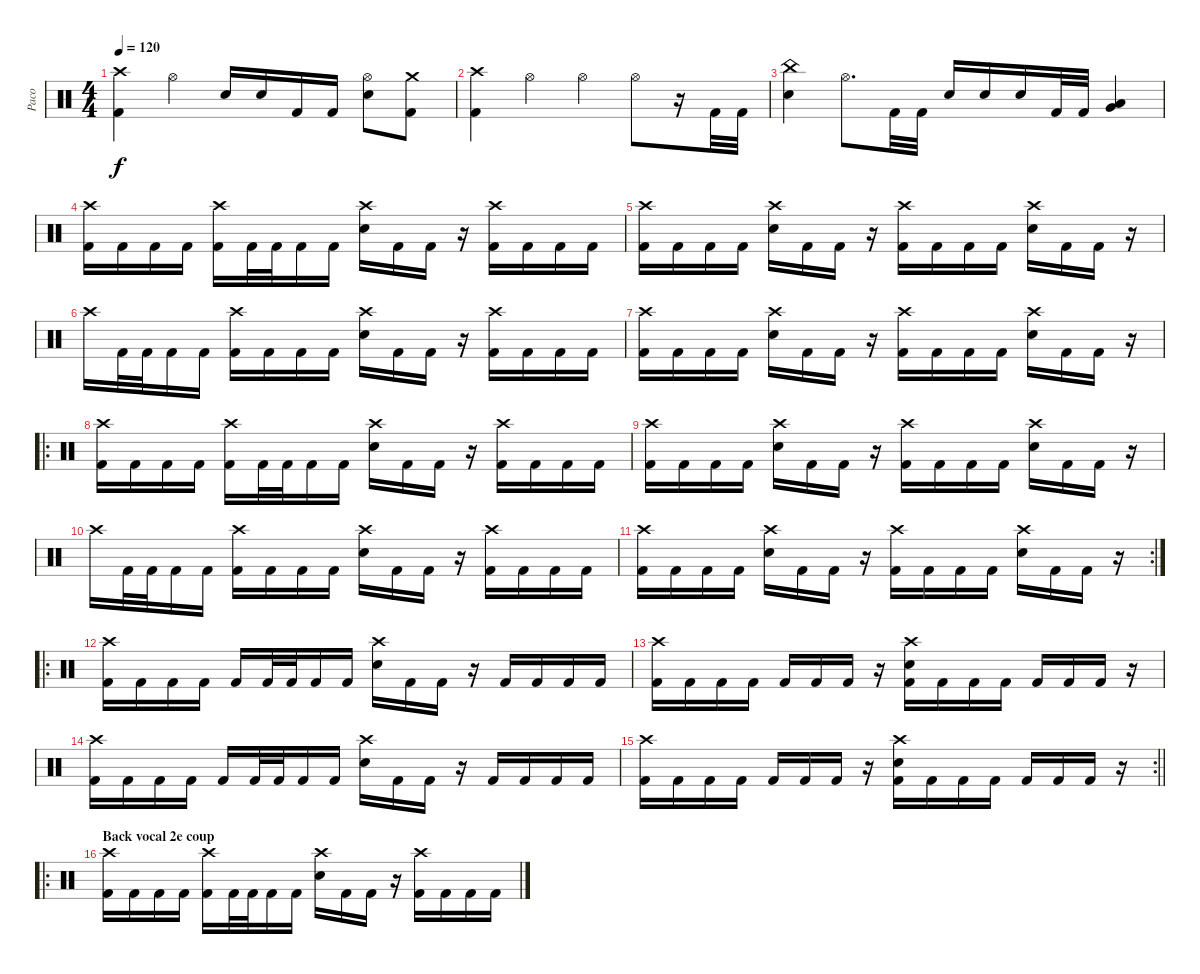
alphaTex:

\track ("Paco" "Paco") {instrument percussion}
\staff {score}
\articulation defaults
\ts (4 4)
\tempo 120
\clef neutral
\ks c
("Crash high (hit)" "Kick (hit) 2").4{dy f} "Hi-Hat (open)".4 "Electric Snare (hit)".16 "Electric Snare (hit)".16 "Kick (hit) 2".16 "Kick (hit) 2".16 ("Hi-Hat (open)" "Electric Snare (hit)").8 ("Crash medium (hit)" "Kick (hit) 2").8 |
("Crash high (hit)" "Kick (hit) 2").4 "Hi-Hat (open)".4 "Hi-Hat (open)".4 "Hi-Hat (open)".8 r.16 "Kick (hit) 2".32 "Kick (hit) 2".32 |
("China (hit)" "Electric Snare (hit)").4 "Hi-Hat (open)".8{d} "Kick (hit) 2".32 "Kick (hit) 2".32 "Electric Snare (hit)".16 "Electric Snare (hit)".16 "Electric Snare (hit)".16 "Kick (hit) 2".32 "Kick (hit) 2".32 ("Very Low Tom (hit)" "Low Floor Tom (hit)").4 |
("Crash high (hit)" "Kick (hit) 2").16 "Kick (hit) 2".16 "Kick (hit) 2".16 "Kick (hit) 2".16 ("Crash high (hit)" "Kick (hit) 2").16 "Kick (hit) 2".32 "Kick (hit) 2".32 "Kick (hit) 2".16 "Kick (hit) 2".16 ("Crash high (hit)" "Electric Snare (hit)").16 "Kick (hit) 2".16 "Kick (hit) 2".16 r.16 ("Crash high (hit)" "Kick (hit) 2").16 "Kick (hit) 2".16 "Kick (hit) 2".16 "Kick (hit) 2".16 |
("Crash high (hit)" "Kick (hit) 2").16 "Kick (hit) 2".16 "Kick (hit) 2".16 "Kick (hit) 2".16 ("Crash high (hit)" "Electric Snare (hit)").16 "Kick (hit) 2".16 "Kick (hit) 2".16 r.16 ("Crash high (hit)" "Kick (hit) 2").16 "Kick (hit) 2".16 "Kick (hit) 2".16 "Kick (hit) 2".16 ("Crash high (hit)" "Electric Snare (hit)").16 "Kick (hit) 2".16 "Kick (hit) 2".16 r.16 |
"Crash high (hit)".16 "Kick (hit) 2".32 "Kick (hit) 2".32 "Kick (hit) 2".16 "Kick (hit) 2".16 ("Crash high (hit)" "Kick (hit) 2").16 "Kick (hit) 2".16 "Kick (hit) 2".16 "Kick (hit) 2".16 ("Crash high (hit)" "Electric Snare (hit)").16 "Kick (hit) 2".16 "Kick (hit) 2".16 r.16 ("Crash high (hit)" "Kick (hit) 2").16 "Kick (hit) 2".16 "Kick (hit) 2".16 "Kick (hit) 2".16 |
("Crash high (hit)" "Kick (hit) 2").16 "Kick (hit) 2".16 "Kick (hit) 2".16 "Kick (hit) 2".16 ("Crash high (hit)" "Electric Snare (hit)").16 "Kick (hit) 2".16 "Kick (hit) 2".16 r.16 ("Crash high (hit)" "Kick (hit) 2").16 "Kick (hit) 2".16 "Kick (hit) 2".16 "Kick (hit) 2".16 ("Crash high (hit)" "Electric Snare (hit)").16 "Kick (hit) 2".16 "Kick (hit) 2".16 r.16 |
\ro
("Crash high (hit)" "Kick (hit) 2").16 "Kick (hit) 2".16 "Kick (hit) 2".16 "Kick (hit) 2".16 ("Crash high (hit)" "Kick (hit) 2").16 "Kick (hit) 2".32 "Kick (hit) 2".32 "Kick (hit) 2".16 "Kick (hit) 2".16 ("Crash high (hit)" "Electric Snare (hit)").16 "Kick (hit) 2".16 "Kick (hit) 2".16 r.16 ("Crash high (hit)" "Kick (hit) 2").16 "Kick (hit) 2".16 "Kick (hit) 2".16 "Kick (hit) 2".16 |
("Crash high (hit)" "Kick (hit) 2").16 "Kick (hit) 2".16 "Kick (hit) 2".16 "Kick (hit) 2".16 ("Crash high (hit)" "Electric Snare (hit)").16 "Kick (hit) 2".16 "Kick (hit) 2".16 r.16 ("Crash high (hit)" "Kick (hit) 2").16 "Kick (hit) 2".16 "Kick (hit) 2".16 "Kick (hit) 2".16 ("Crash high (hit)" "Electric Snare (hit)").16 "Kick (hit) 2".16 "Kick (hit) 2".16 r.16 |
"Crash high (hit)".16 "Kick (hit) 2".32 "Kick (hit) 2".32 "Kick (hit) 2".16 "Kick (hit) 2".16 ("Crash high (hit)" "Kick (hit) 2").16 "Kick (hit) 2".16 "Kick (hit) 2".16 "Kick (hit) 2".16 ("Crash high (hit)" "Electric Snare (hit)").16 "Kick (hit) 2".16 "Kick (hit) 2".16 r.16 ("Crash high (hit)" "Kick (hit) 2").16 "Kick (hit) 2".16 "Kick (hit) 2".16 "Kick (hit) 2".16 |
\rc 2
("Crash high (hit)" "Kick (hit) 2").16 "Kick (hit) 2".16 "Kick (hit) 2".16 "Kick (hit) 2".16 ("Crash high (hit)" "Electric Snare (hit)").16 "Kick (hit) 2".16 "Kick (hit) 2".16 r.16 ("Crash high (hit)" "Kick (hit) 2").16 "Kick (hit) 2".16 "Kick (hit) 2".16 "Kick (hit) 2".16 ("Crash high (hit)" "Electric Snare (hit)").16 "Kick (hit) 2".16 "Kick (hit) 2".16 r.16 |
\ro
("Crash high (hit)" "Kick (hit) 2").16 "Kick (hit) 2".16 "Kick (hit) 2".16 "Kick (hit) 2".16 "Kick (hit) 2".16 "Kick (hit) 2".32 "Kick (hit) 2".32 "Kick (hit) 2".16 "Kick (hit) 2".16 ("Crash high (hit)" "Electric Snare (hit)").16 "Kick (hit) 2".16 "Kick (hit) 2".16 r.16 "Kick (hit) 2".16 "Kick (hit) 2".16 "Kick (hit) 2".16 "Kick (hit) 2".16 |
("Crash high (hit)" "Kick (hit) 2").16 "Kick (hit) 2".16 "Kick (hit) 2".16 "Kick (hit) 2".16 "Kick (hit) 2".16 "Kick (hit) 2".16 "Kick (hit) 2".16 r.16 ("Crash high (hit)" "Electric Snare (hit)" "Kick (hit) 2").16 "Kick (hit) 2".16 "Kick (hit) 2".16 "Kick (hit) 2".16 "Kick (hit) 2".16 "Kick (hit) 2".16 "Kick (hit) 2".16 r.16 |
("Crash high (hit)" "Kick (hit) 2").16 "Kick (hit) 2".16 "Kick (hit) 2".16 "Kick (hit) 2".16 "Kick (hit) 2".16 "Kick (hit) 2".32 "Kick (hit) 2".32 "Kick (hit) 2".16 "Kick (hit) 2".16 ("Crash high (hit)" "Electric Snare (hit)").16 "Kick (hit) 2".16 "Kick (hit) 2".16 r.16 "Kick (hit) 2".16 "Kick (hit) 2".16 "Kick (hit) 2".16 "Kick (hit) 2".16 |
\rc 2
\barLineRight lightlight
("Crash high (hit)" "Kick (hit) 2").16 "Kick (hit) 2".16 "Kick (hit) 2".16 "Kick (hit) 2".16 "Kick (hit) 2".16 "Kick (hit) 2".16 "Kick (hit) 2".16 r.16 ("Crash high (hit)" "Electric Snare (hit)" "Kick (hit) 2").16 "Kick (hit) 2".16 "Kick (hit) 2".16 "Kick (hit) 2".16 "Kick (hit) 2".16 "Kick (hit) 2".16 "Kick (hit) 2".16 r.16 |
\ro
\section ("" "Back vocal 2e coup")
("Crash high (hit)" "Kick (hit) 2").16 "Kick (hit) 2".16 "Kick (hit) 2".16 "Kick (hit) 2".16 ("Crash high (hit)" "Kick (hit) 2").16 "Kick (hit) 2".32 "Kick (hit) 2".32 "Kick (hit) 2".16 "Kick (hit) 2".16 ("Crash high (hit)" "Electric Snare (hit)").16 "Kick (hit) 2".16 "Kick (hit) 2".16 r.16 ("Crash high (hit)" "Kick (hit) 2").16 "Kick (hit) 2".16 "Kick (hit) 2".16 "Kick (hit) 2".16
